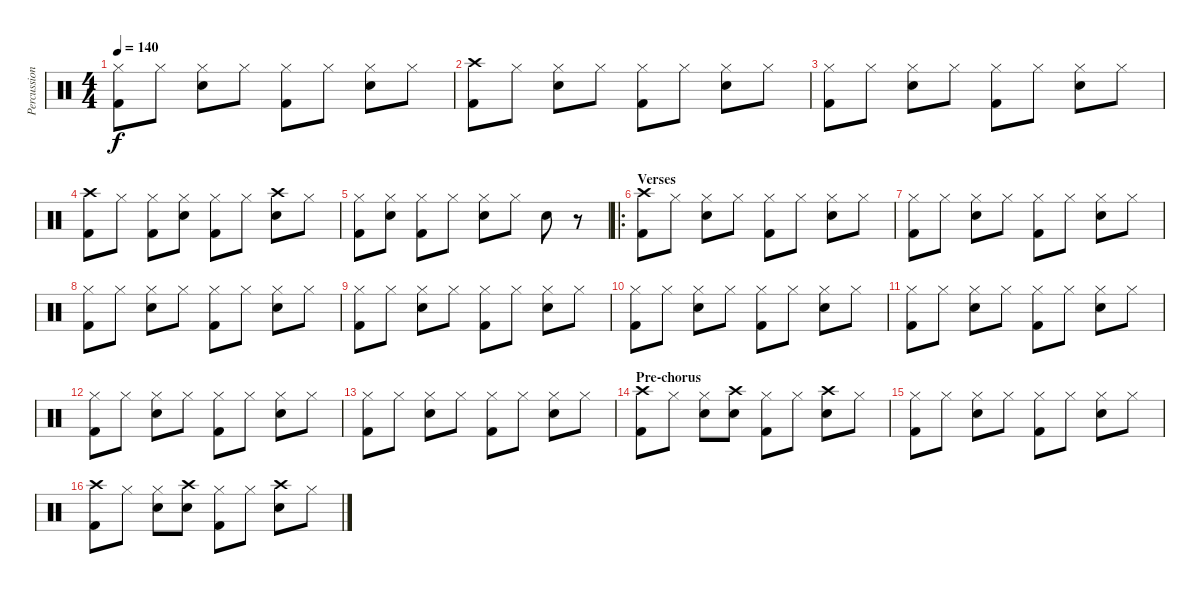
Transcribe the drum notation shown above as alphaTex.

\track ("Percussion" "Percussion") {instrument percussion}
\staff {score}
\articulation defaults
\ts (4 4)
\tempo 140
\clef neutral
\ks c
("Hi-Hat (closed)" "Kick (hit) 2").8{dy f} "Hi-Hat (closed)".8 ("Hi-Hat (closed)" "Snare (hit) 2").8 "Hi-Hat (closed)".8 ("Hi-Hat (closed)" "Kick (hit) 2").8 "Hi-Hat (closed)".8 ("Hi-Hat (closed)" "Snare (hit) 2").8 "Hi-Hat (closed)".8 |
("Crash high (hit)" "Kick (hit) 2").8 "Hi-Hat (closed)".8 ("Hi-Hat (closed)" "Snare (hit) 2").8 "Hi-Hat (closed)".8 ("Hi-Hat (closed)" "Kick (hit) 2").8 "Hi-Hat (closed)".8 ("Hi-Hat (closed)" "Snare (hit) 2").8 "Hi-Hat (closed)".8 |
("Hi-Hat (closed)" "Kick (hit) 2").8 "Hi-Hat (closed)".8 ("Hi-Hat (closed)" "Snare (hit) 2").8 "Hi-Hat (closed)".8 ("Hi-Hat (closed)" "Kick (hit) 2").8 "Hi-Hat (closed)".8 ("Hi-Hat (closed)" "Snare (hit) 2").8 "Hi-Hat (closed)".8 |
("Crash high (hit)" "Kick (hit) 2").8 "Hi-Hat (closed)".8 ("Hi-Hat (closed)" "Kick (hit) 2").8 ("Hi-Hat (closed)" "Snare (hit) 2").8 ("Hi-Hat (closed)" "Kick (hit) 2").8 "Hi-Hat (closed)".8 ("Crash high (hit)" "Snare (hit) 2").8 "Hi-Hat (closed)".8 |
("Hi-Hat (closed)" "Kick (hit) 2").8 ("Hi-Hat (closed)" "Snare (hit) 2").8 ("Hi-Hat (closed)" "Kick (hit) 2").8 "Hi-Hat (closed)".8 ("Hi-Hat (closed)" "Snare (hit) 2").8 "Hi-Hat (closed)".8 "Snare (hit) 2".8 r.8 |
\ro
\section ("" "Verses")
("Crash high (hit)" "Kick (hit) 2").8 "Hi-Hat (closed)".8 ("Hi-Hat (closed)" "Snare (hit) 2").8 "Hi-Hat (closed)".8 ("Hi-Hat (closed)" "Kick (hit) 2").8 "Hi-Hat (closed)".8 ("Hi-Hat (closed)" "Snare (hit) 2").8 "Hi-Hat (closed)".8 |
("Hi-Hat (closed)" "Kick (hit) 2").8 "Hi-Hat (closed)".8 ("Hi-Hat (closed)" "Snare (hit) 2").8 "Hi-Hat (closed)".8 ("Hi-Hat (closed)" "Kick (hit) 2").8 "Hi-Hat (closed)".8 ("Hi-Hat (closed)" "Snare (hit) 2").8 "Hi-Hat (closed)".8 |
("Hi-Hat (closed)" "Kick (hit) 2").8 "Hi-Hat (closed)".8 ("Hi-Hat (closed)" "Snare (hit) 2").8 "Hi-Hat (closed)".8 ("Hi-Hat (closed)" "Kick (hit) 2").8 "Hi-Hat (closed)".8 ("Hi-Hat (closed)" "Snare (hit) 2").8 "Hi-Hat (closed)".8 |
("Hi-Hat (closed)" "Kick (hit) 2").8 "Hi-Hat (closed)".8 ("Hi-Hat (closed)" "Snare (hit) 2").8 "Hi-Hat (closed)".8 ("Hi-Hat (closed)" "Kick (hit) 2").8 "Hi-Hat (closed)".8 ("Hi-Hat (closed)" "Snare (hit) 2").8 "Hi-Hat (closed)".8 |
("Hi-Hat (closed)" "Kick (hit) 2").8 "Hi-Hat (closed)".8 ("Hi-Hat (closed)" "Snare (hit) 2").8 "Hi-Hat (closed)".8 ("Hi-Hat (closed)" "Kick (hit) 2").8 "Hi-Hat (closed)".8 ("Hi-Hat (closed)" "Snare (hit) 2").8 "Hi-Hat (closed)".8 |
("Hi-Hat (closed)" "Kick (hit) 2").8 "Hi-Hat (closed)".8 ("Hi-Hat (closed)" "Snare (hit) 2").8 "Hi-Hat (closed)".8 ("Hi-Hat (closed)" "Kick (hit) 2").8 "Hi-Hat (closed)".8 ("Hi-Hat (closed)" "Snare (hit) 2").8 "Hi-Hat (closed)".8 |
("Hi-Hat (closed)" "Kick (hit) 2").8 "Hi-Hat (closed)".8 ("Hi-Hat (closed)" "Snare (hit) 2").8 "Hi-Hat (closed)".8 ("Hi-Hat (closed)" "Kick (hit) 2").8 "Hi-Hat (closed)".8 ("Hi-Hat (closed)" "Snare (hit) 2").8 "Hi-Hat (closed)".8 |
("Hi-Hat (closed)" "Kick (hit) 2").8 "Hi-Hat (closed)".8 ("Hi-Hat (closed)" "Snare (hit) 2").8 "Hi-Hat (closed)".8 ("Hi-Hat (closed)" "Kick (hit) 2").8 "Hi-Hat (closed)".8 ("Hi-Hat (closed)" "Snare (hit) 2").8 "Hi-Hat (closed)".8 |
\section ("" "Pre-chorus")
("Crash high (hit)" "Kick (hit) 2").8 "Hi-Hat (closed)".8 ("Hi-Hat (closed)" "Snare (hit) 2").8 ("Crash high (hit)" "Snare (hit) 2").8 ("Hi-Hat (closed)" "Kick (hit) 2").8 "Hi-Hat (closed)".8 ("Crash high (hit)" "Snare (hit) 2").8 "Hi-Hat (closed)".8 |
("Hi-Hat (closed)" "Kick (hit) 2").8 "Hi-Hat (closed)".8 ("Hi-Hat (closed)" "Snare (hit) 2").8 "Hi-Hat (closed)".8 ("Hi-Hat (closed)" "Kick (hit) 2").8 "Hi-Hat (closed)".8 ("Hi-Hat (closed)" "Snare (hit) 2").8 "Hi-Hat (closed)".8 |
("Crash high (hit)" "Kick (hit) 2").8 "Hi-Hat (closed)".8 ("Hi-Hat (closed)" "Snare (hit) 2").8 ("Crash high (hit)" "Snare (hit) 2").8 ("Hi-Hat (closed)" "Kick (hit) 2").8 "Hi-Hat (closed)".8 ("Crash high (hit)" "Snare (hit) 2").8 "Hi-Hat (closed)".8
